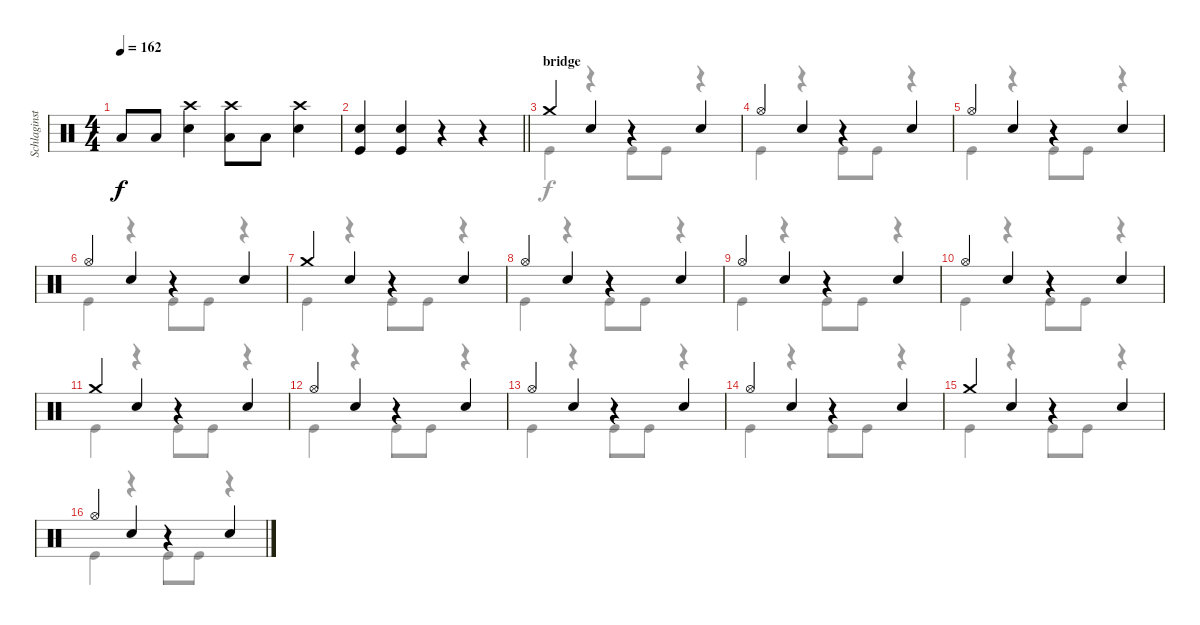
\track ("Schlaginstrumente - Auswahl" "Schlaginst") {instrument percussion}
\staff {score}
\articulation defaults
\voice
\ts (4 4)
\tempo 162
\clef neutral
\ks c "Low Floor Tom (hit)".8{dy f} "Low Floor Tom (hit)".8
("Snare (hit) 2" "Crash high (hit)").4 ("Low Floor Tom (hit)" "Crash high (hit)").8 "Low Floor Tom (hit)".8 ("Crash high (hit)" "Snare (hit) 2").4 |
\barLineRight lightlight
("Kick (hit)" "Snare (hit) 2").4 ("Kick (hit)" "Snare (hit) 2").4 r.4 r.4 |
\section ("" "bridge")
"Crash medium (hit)".4 "Snare (hit) 2".4 r.4 "Snare (hit) 2".4 |
"Hi-Hat (open)".4 "Snare (hit) 2".4 r.4 "Snare (hit) 2".4 |
"Hi-Hat (open)".4 "Snare (hit) 2".4 r.4 "Snare (hit) 2".4 |
"Hi-Hat (open)".4 "Snare (hit) 2".4 r.4 "Snare (hit) 2".4 |
"Crash medium (hit)".4 "Snare (hit) 2".4 r.4 "Snare (hit) 2".4 |
"Hi-Hat (open)".4 "Snare (hit) 2".4 r.4 "Snare (hit) 2".4 |
"Hi-Hat (open)".4 "Snare (hit) 2".4 r.4 "Snare (hit) 2".4 |
"Hi-Hat (open)".4 "Snare (hit) 2".4 r.4 "Snare (hit) 2".4 |
"Crash medium (hit)".4 "Snare (hit) 2".4 r.4 "Snare (hit) 2".4 |
"Hi-Hat (open)".4 "Snare (hit) 2".4 r.4 "Snare (hit) 2".4 |
"Hi-Hat (open)".4 "Snare (hit) 2".4 r.4 "Snare (hit) 2".4 |
"Hi-Hat (open)".4 "Snare (hit) 2".4 r.4 "Snare (hit) 2".4 |
"Crash medium (hit)".4 "Snare (hit) 2".4 r.4 "Snare (hit) 2".4 |
"Hi-Hat (open)".4 "Snare (hit) 2".4 r.4 "Snare (hit) 2".4
\voice
\clef neutral
\ottava regular
\simile none
\ks c
|
\barLineRight lightlight
|
"Kick (hit)".4 r.4 "Kick (hit)".8 "Kick (hit)".8 r.4 |
"Kick (hit)".4 r.4 "Kick (hit)".8 "Kick (hit)".8 r.4 |
"Kick (hit)".4 r.4 "Kick (hit)".8 "Kick (hit)".8 r.4 |
"Kick (hit)".4 r.4 "Kick (hit)".8 "Kick (hit)".8 r.4 |
"Kick (hit)".4 r.4 "Kick (hit)".8 "Kick (hit)".8 r.4 |
"Kick (hit)".4 r.4 "Kick (hit)".8 "Kick (hit)".8 r.4 |
"Kick (hit)".4 r.4 "Kick (hit)".8 "Kick (hit)".8 r.4 |
"Kick (hit)".4 r.4 "Kick (hit)".8 "Kick (hit)".8 r.4 |
"Kick (hit)".4 r.4 "Kick (hit)".8 "Kick (hit)".8 r.4 |
"Kick (hit)".4 r.4 "Kick (hit)".8 "Kick (hit)".8 r.4 |
"Kick (hit)".4 r.4 "Kick (hit)".8 "Kick (hit)".8 r.4 |
"Kick (hit)".4 r.4 "Kick (hit)".8 "Kick (hit)".8 r.4 |
"Kick (hit)".4 r.4 "Kick (hit)".8 "Kick (hit)".8 r.4 |
"Kick (hit)".4 r.4 "Kick (hit)".8 "Kick (hit)".8 r.4
